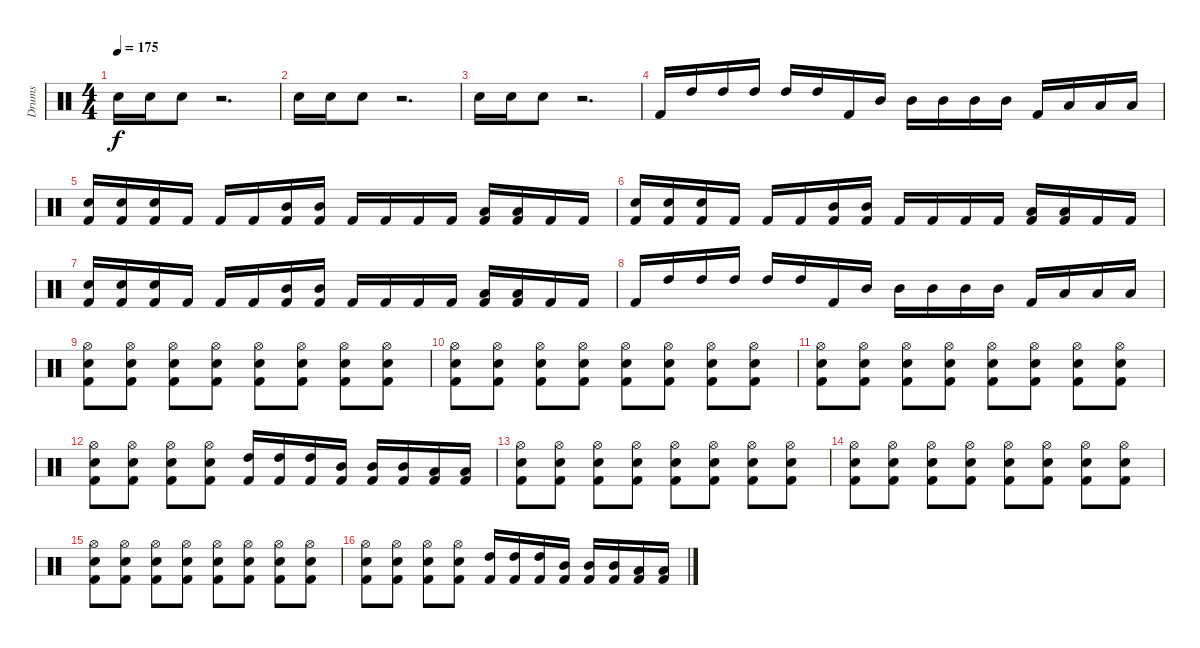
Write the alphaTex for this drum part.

\track ("Drums" "Drums") {instrument percussion}
\staff {score}
\articulation defaults
\ts (4 4)
\tempo 175
\clef neutral
\ks c "Snare (hit) 2".16{dy f} "Snare (hit) 2".16 "Snare (hit) 2".8
r.2{d} |
"Snare (hit) 2".16 "Snare (hit) 2".16 "Snare (hit) 2".8 r.2{d} |
"Snare (hit) 2".16 "Snare (hit) 2".16 "Snare (hit) 2".8 r.2{d} |
"Kick (hit) 2".16 "High Tom (hit)".16 "High Tom (hit)".16 "High Tom (hit)".16 "High Tom (hit)".16 "High Tom (hit)".16 "Kick (hit) 2".16 "Mid Tom (hit)".16 "Mid Tom (hit)".16 "Mid Tom (hit)".16 "Mid Tom (hit)".16 "Mid Tom (hit)".16 "Kick (hit) 2".16 "Low Tom (hit)".16 "Low Tom (hit)".16 "Low Tom (hit)".16 |
("Snare (hit) 2" "Kick (hit) 2").16 ("Snare (hit) 2" "Kick (hit) 2").16 ("Snare (hit) 2" "Kick (hit) 2").16 "Kick (hit) 2".16 "Kick (hit) 2".16 "Kick (hit) 2".16 ("Mid Tom (hit)" "Kick (hit) 2").16 ("Mid Tom (hit)" "Kick (hit) 2").16 "Kick (hit) 2".16 "Kick (hit) 2".16 "Kick (hit) 2".16 "Kick (hit) 2".16 ("Low Tom (hit)" "Kick (hit) 2").16 ("Low Tom (hit)" "Kick (hit) 2").16 "Kick (hit) 2".16 "Kick (hit) 2".16 |
("Snare (hit) 2" "Kick (hit) 2").16 ("Snare (hit) 2" "Kick (hit) 2").16 ("Snare (hit) 2" "Kick (hit) 2").16 "Kick (hit) 2".16 "Kick (hit) 2".16 "Kick (hit) 2".16 ("Mid Tom (hit)" "Kick (hit) 2").16 ("Mid Tom (hit)" "Kick (hit) 2").16 "Kick (hit) 2".16 "Kick (hit) 2".16 "Kick (hit) 2".16 "Kick (hit) 2".16 ("Low Tom (hit)" "Kick (hit) 2").16 ("Low Tom (hit)" "Kick (hit) 2").16 "Kick (hit) 2".16 "Kick (hit) 2".16 |
("Snare (hit) 2" "Kick (hit) 2").16 ("Snare (hit) 2" "Kick (hit) 2").16 ("Snare (hit) 2" "Kick (hit) 2").16 "Kick (hit) 2".16 "Kick (hit) 2".16 "Kick (hit) 2".16 ("Mid Tom (hit)" "Kick (hit) 2").16 ("Mid Tom (hit)" "Kick (hit) 2").16 "Kick (hit) 2".16 "Kick (hit) 2".16 "Kick (hit) 2".16 "Kick (hit) 2".16 ("Low Tom (hit)" "Kick (hit) 2").16 ("Low Tom (hit)" "Kick (hit) 2").16 "Kick (hit) 2".16 "Kick (hit) 2".16 |
"Kick (hit) 2".16 "High Tom (hit)".16 "High Tom (hit)".16 "High Tom (hit)".16 "High Tom (hit)".16 "High Tom (hit)".16 "Kick (hit) 2".16 "Mid Tom (hit)".16 "Mid Tom (hit)".16 "Mid Tom (hit)".16 "Mid Tom (hit)".16 "Mid Tom (hit)".16 "Kick (hit) 2".16 "Low Tom (hit)".16 "Low Tom (hit)".16 "Low Tom (hit)".16 |
("Hi-Hat (open)" "Snare (hit) 2" "Kick (hit) 2").8 ("Hi-Hat (open)" "Snare (hit) 2" "Kick (hit) 2").8 ("Hi-Hat (open)" "Snare (hit) 2" "Kick (hit) 2").8 ("Hi-Hat (open)" "Snare (hit) 2" "Kick (hit) 2").8 ("Hi-Hat (open)" "Snare (hit) 2" "Kick (hit) 2").8 ("Hi-Hat (open)" "Snare (hit) 2" "Kick (hit) 2").8 ("Hi-Hat (open)" "Snare (hit) 2" "Kick (hit) 2").8 ("Hi-Hat (open)" "Snare (hit) 2" "Kick (hit) 2").8 |
("Hi-Hat (open)" "Snare (hit) 2" "Kick (hit) 2").8 ("Hi-Hat (open)" "Snare (hit) 2" "Kick (hit) 2").8 ("Hi-Hat (open)" "Snare (hit) 2" "Kick (hit) 2").8 ("Hi-Hat (open)" "Snare (hit) 2" "Kick (hit) 2").8 ("Hi-Hat (open)" "Snare (hit) 2" "Kick (hit) 2").8 ("Hi-Hat (open)" "Snare (hit) 2" "Kick (hit) 2").8 ("Hi-Hat (open)" "Snare (hit) 2" "Kick (hit) 2").8 ("Hi-Hat (open)" "Snare (hit) 2" "Kick (hit) 2").8 |
("Hi-Hat (open)" "Snare (hit) 2" "Kick (hit) 2").8 ("Hi-Hat (open)" "Snare (hit) 2" "Kick (hit) 2").8 ("Hi-Hat (open)" "Snare (hit) 2" "Kick (hit) 2").8 ("Hi-Hat (open)" "Snare (hit) 2" "Kick (hit) 2").8 ("Hi-Hat (open)" "Snare (hit) 2" "Kick (hit) 2").8 ("Hi-Hat (open)" "Snare (hit) 2" "Kick (hit) 2").8 ("Hi-Hat (open)" "Snare (hit) 2" "Kick (hit) 2").8 ("Hi-Hat (open)" "Snare (hit) 2" "Kick (hit) 2").8 |
("Hi-Hat (open)" "Snare (hit) 2" "Kick (hit) 2").8 ("Hi-Hat (open)" "Snare (hit) 2" "Kick (hit) 2").8 ("Hi-Hat (open)" "Snare (hit) 2" "Kick (hit) 2").8 ("Hi-Hat (open)" "Snare (hit) 2" "Kick (hit) 2").8 ("High Tom (hit)" "Kick (hit) 2").16 ("High Tom (hit)" "Kick (hit) 2").16 ("High Tom (hit)" "Kick (hit) 2").16 ("Mid Tom (hit)" "Kick (hit) 2").16 ("Mid Tom (hit)" "Kick (hit) 2").16 ("Mid Tom (hit)" "Kick (hit) 2").16 ("Low Tom (hit)" "Kick (hit) 2").16 ("Low Tom (hit)" "Kick (hit) 2").16 |
("Hi-Hat (open)" "Snare (hit) 2" "Kick (hit) 2").8 ("Hi-Hat (open)" "Snare (hit) 2" "Kick (hit) 2").8 ("Hi-Hat (open)" "Snare (hit) 2" "Kick (hit) 2").8 ("Hi-Hat (open)" "Snare (hit) 2" "Kick (hit) 2").8 ("Hi-Hat (open)" "Snare (hit) 2" "Kick (hit) 2").8 ("Hi-Hat (open)" "Snare (hit) 2" "Kick (hit) 2").8 ("Hi-Hat (open)" "Snare (hit) 2" "Kick (hit) 2").8 ("Hi-Hat (open)" "Snare (hit) 2" "Kick (hit) 2").8 |
("Hi-Hat (open)" "Snare (hit) 2" "Kick (hit) 2").8 ("Hi-Hat (open)" "Snare (hit) 2" "Kick (hit) 2").8 ("Hi-Hat (open)" "Snare (hit) 2" "Kick (hit) 2").8 ("Hi-Hat (open)" "Snare (hit) 2" "Kick (hit) 2").8 ("Hi-Hat (open)" "Snare (hit) 2" "Kick (hit) 2").8 ("Hi-Hat (open)" "Snare (hit) 2" "Kick (hit) 2").8 ("Hi-Hat (open)" "Snare (hit) 2" "Kick (hit) 2").8 ("Hi-Hat (open)" "Snare (hit) 2" "Kick (hit) 2").8 |
("Hi-Hat (open)" "Snare (hit) 2" "Kick (hit) 2").8 ("Hi-Hat (open)" "Snare (hit) 2" "Kick (hit) 2").8 ("Hi-Hat (open)" "Snare (hit) 2" "Kick (hit) 2").8 ("Hi-Hat (open)" "Snare (hit) 2" "Kick (hit) 2").8 ("Hi-Hat (open)" "Snare (hit) 2" "Kick (hit) 2").8 ("Hi-Hat (open)" "Snare (hit) 2" "Kick (hit) 2").8 ("Hi-Hat (open)" "Snare (hit) 2" "Kick (hit) 2").8 ("Hi-Hat (open)" "Snare (hit) 2" "Kick (hit) 2").8 |
("Hi-Hat (open)" "Snare (hit) 2" "Kick (hit) 2").8 ("Hi-Hat (open)" "Snare (hit) 2" "Kick (hit) 2").8 ("Hi-Hat (open)" "Snare (hit) 2" "Kick (hit) 2").8 ("Hi-Hat (open)" "Snare (hit) 2" "Kick (hit) 2").8 ("High Tom (hit)" "Kick (hit) 2").16 ("High Tom (hit)" "Kick (hit) 2").16 ("High Tom (hit)" "Kick (hit) 2").16 ("Mid Tom (hit)" "Kick (hit) 2").16 ("Mid Tom (hit)" "Kick (hit) 2").16 ("Mid Tom (hit)" "Kick (hit) 2").16 ("Low Tom (hit)" "Kick (hit) 2").16 ("Low Tom (hit)" "Kick (hit) 2").16
